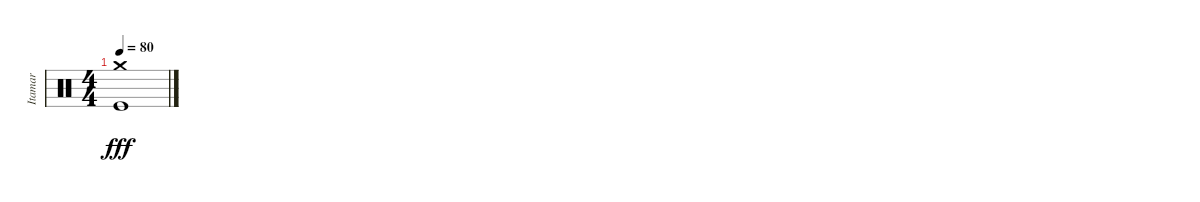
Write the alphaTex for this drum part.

\track ("Itamar" "Itamar") {instrument percussion}
\staff {score}
\articulation defaults
\ts (4 4)
\tempo 80
\clef neutral
\ks c
("Crash medium (hit)" "Kick (hit)").1{dy fff}
